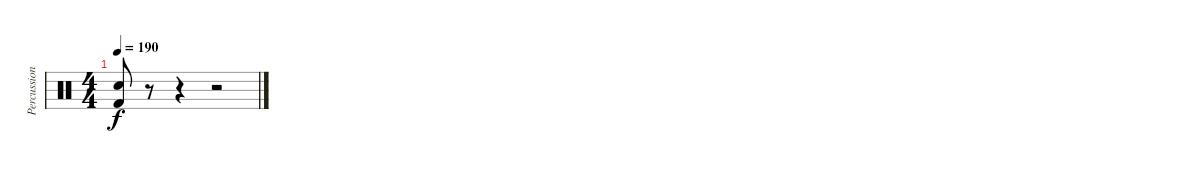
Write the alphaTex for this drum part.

\track ("Percussion" "Percussion") {instrument percussion}
\staff {score}
\articulation defaults
\ts (4 4)
\tempo 190
\clef neutral
\ks c
("Snare (hit) 2" "Kick (hit) 2").8{dy f} r.8 r.4 r.2
